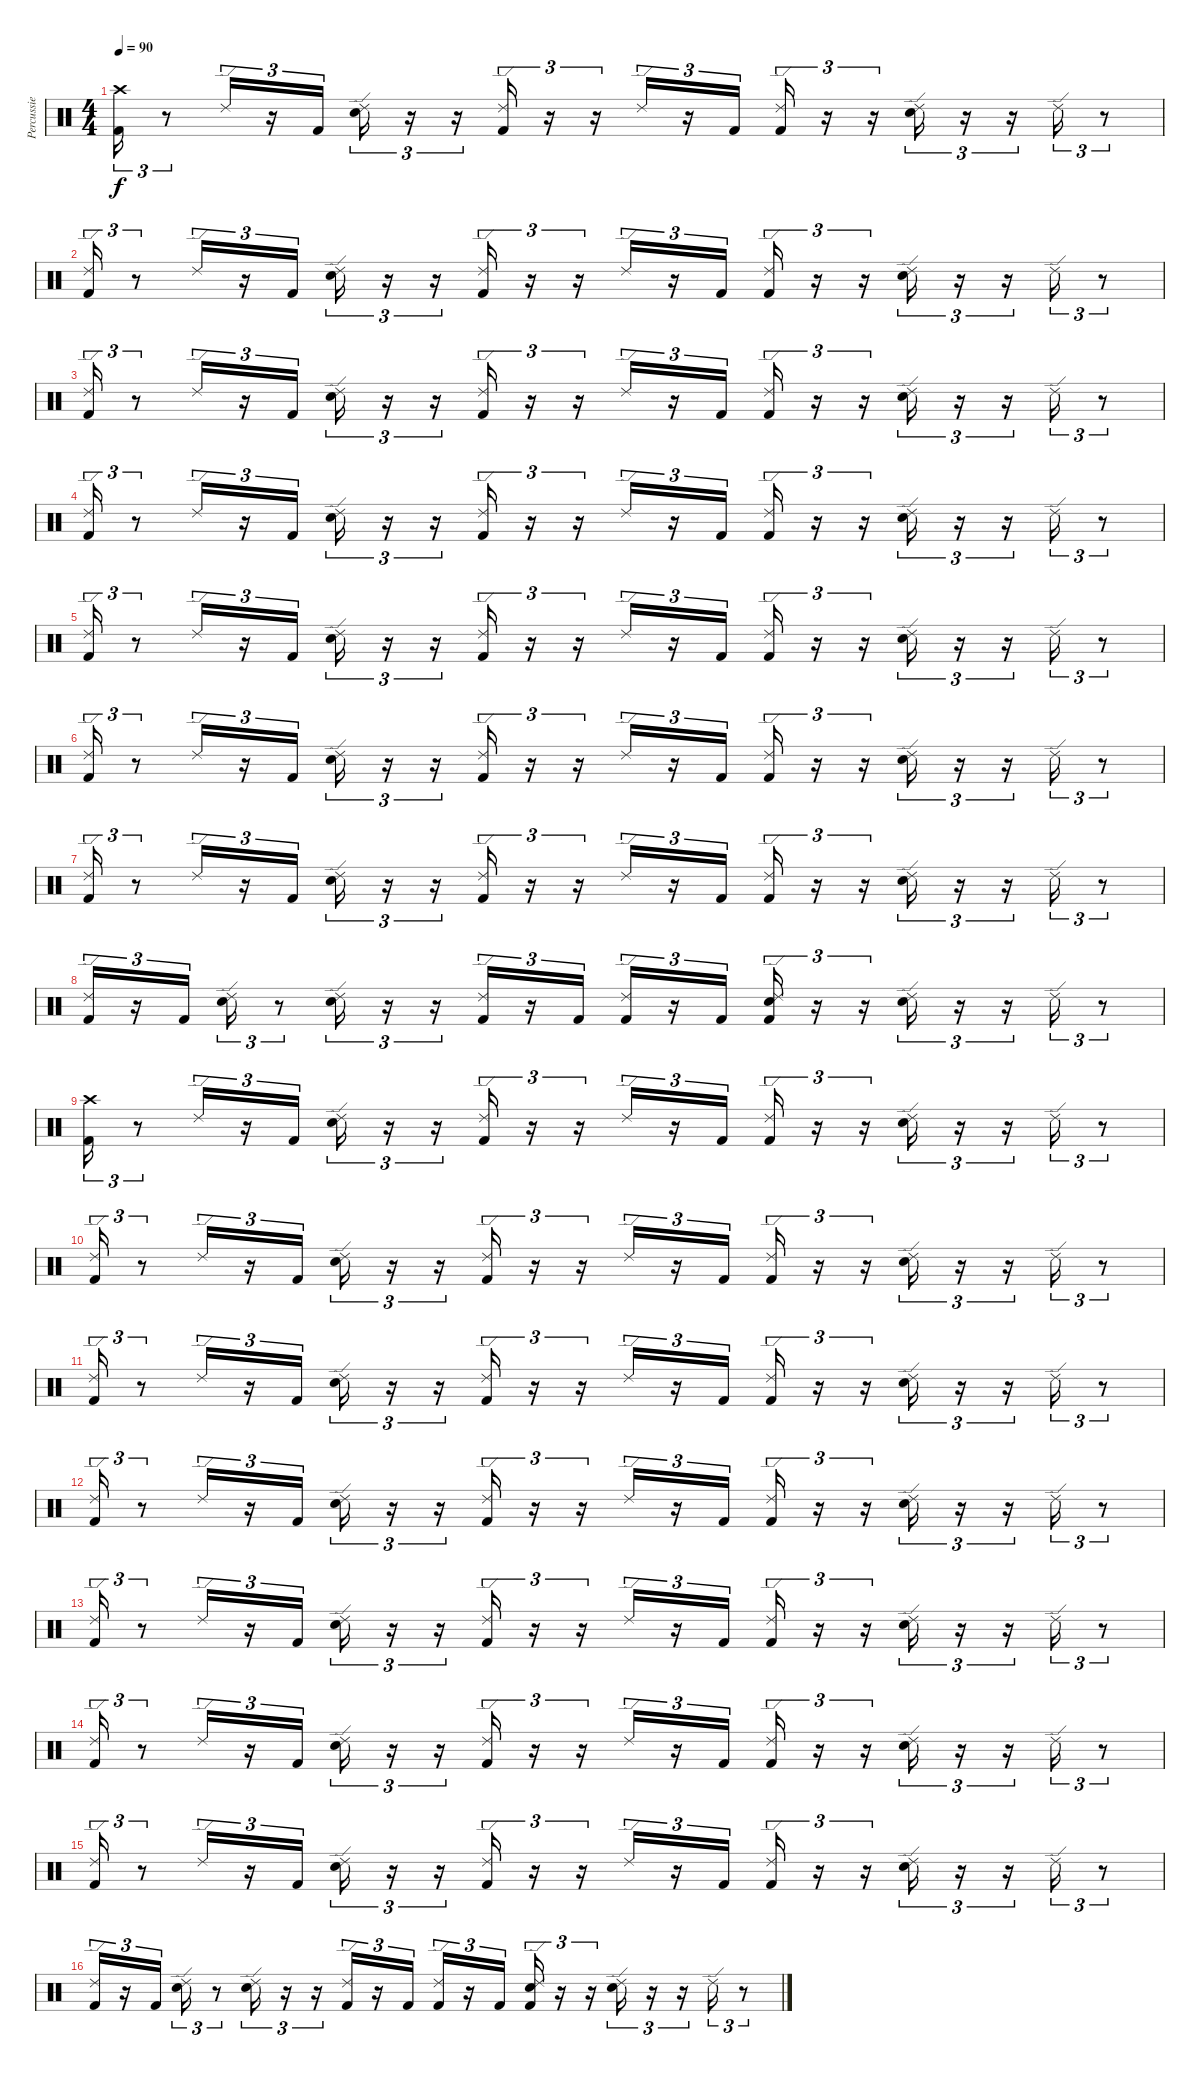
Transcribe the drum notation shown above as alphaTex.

\track ("Percussie" "Percussie") {instrument percussion}
\staff {score}
\articulation defaults
\ts (4 4)
\tempo 90
\clef neutral
\ks c
("Crash high (hit)" "Kick (hit) 2").16{tu (3 2) dy f} r.8{tu (3 2)} "Ride (edge) 2".16{tu (3 2)} r.16{tu (3 2)} "Kick (hit) 2".16{tu (3 2)} ("Ride (edge) 2" "Electric Snare (hit)").16{tu (3 2)} r.16{tu (3 2)} r.16{tu (3 2)} ("Ride (edge) 2" "Kick (hit) 2").16{tu (3 2)} r.16{tu (3 2)} r.16{tu (3 2)} "Ride (edge) 2".16{tu (3 2)} r.16{tu (3 2)} "Kick (hit) 2".16{tu (3 2)} ("Ride (edge) 2" "Kick (hit) 2").16{tu (3 2)} r.16{tu (3 2)} r.16{tu (3 2)} ("Ride (edge) 2" "Electric Snare (hit)").16{tu (3 2)} r.16{tu (3 2)} r.16{tu (3 2)} "Ride (edge) 2".16{tu (3 2)} r.8{tu (3 2)} |
("Ride (edge) 2" "Kick (hit) 2").16{tu (3 2)} r.8{tu (3 2)} "Ride (edge) 2".16{tu (3 2)} r.16{tu (3 2)} "Kick (hit) 2".16{tu (3 2)} ("Ride (edge) 2" "Electric Snare (hit)").16{tu (3 2)} r.16{tu (3 2)} r.16{tu (3 2)} ("Ride (edge) 2" "Kick (hit) 2").16{tu (3 2)} r.16{tu (3 2)} r.16{tu (3 2)} "Ride (edge) 2".16{tu (3 2)} r.16{tu (3 2)} "Kick (hit) 2".16{tu (3 2)} ("Ride (edge) 2" "Kick (hit) 2").16{tu (3 2)} r.16{tu (3 2)} r.16{tu (3 2)} ("Ride (edge) 2" "Electric Snare (hit)").16{tu (3 2)} r.16{tu (3 2)} r.16{tu (3 2)} "Ride (edge) 2".16{tu (3 2)} r.8{tu (3 2)} |
("Ride (edge) 2" "Kick (hit) 2").16{tu (3 2)} r.8{tu (3 2)} "Ride (edge) 2".16{tu (3 2)} r.16{tu (3 2)} "Kick (hit) 2".16{tu (3 2)} ("Ride (edge) 2" "Electric Snare (hit)").16{tu (3 2)} r.16{tu (3 2)} r.16{tu (3 2)} ("Ride (edge) 2" "Kick (hit) 2").16{tu (3 2)} r.16{tu (3 2)} r.16{tu (3 2)} "Ride (edge) 2".16{tu (3 2)} r.16{tu (3 2)} "Kick (hit) 2".16{tu (3 2)} ("Ride (edge) 2" "Kick (hit) 2").16{tu (3 2)} r.16{tu (3 2)} r.16{tu (3 2)} ("Ride (edge) 2" "Electric Snare (hit)").16{tu (3 2)} r.16{tu (3 2)} r.16{tu (3 2)} "Ride (edge) 2".16{tu (3 2)} r.8{tu (3 2)} |
("Ride (edge) 2" "Kick (hit) 2").16{tu (3 2)} r.8{tu (3 2)} "Ride (edge) 2".16{tu (3 2)} r.16{tu (3 2)} "Kick (hit) 2".16{tu (3 2)} ("Ride (edge) 2" "Electric Snare (hit)").16{tu (3 2)} r.16{tu (3 2)} r.16{tu (3 2)} ("Ride (edge) 2" "Kick (hit) 2").16{tu (3 2)} r.16{tu (3 2)} r.16{tu (3 2)} "Ride (edge) 2".16{tu (3 2)} r.16{tu (3 2)} "Kick (hit) 2".16{tu (3 2)} ("Ride (edge) 2" "Kick (hit) 2").16{tu (3 2)} r.16{tu (3 2)} r.16{tu (3 2)} ("Ride (edge) 2" "Electric Snare (hit)").16{tu (3 2)} r.16{tu (3 2)} r.16{tu (3 2)} "Ride (edge) 2".16{tu (3 2)} r.8{tu (3 2)} |
("Ride (edge) 2" "Kick (hit) 2").16{tu (3 2)} r.8{tu (3 2)} "Ride (edge) 2".16{tu (3 2)} r.16{tu (3 2)} "Kick (hit) 2".16{tu (3 2)} ("Ride (edge) 2" "Electric Snare (hit)").16{tu (3 2)} r.16{tu (3 2)} r.16{tu (3 2)} ("Ride (edge) 2" "Kick (hit) 2").16{tu (3 2)} r.16{tu (3 2)} r.16{tu (3 2)} "Ride (edge) 2".16{tu (3 2)} r.16{tu (3 2)} "Kick (hit) 2".16{tu (3 2)} ("Ride (edge) 2" "Kick (hit) 2").16{tu (3 2)} r.16{tu (3 2)} r.16{tu (3 2)} ("Ride (edge) 2" "Electric Snare (hit)").16{tu (3 2)} r.16{tu (3 2)} r.16{tu (3 2)} "Ride (edge) 2".16{tu (3 2)} r.8{tu (3 2)} |
("Ride (edge) 2" "Kick (hit) 2").16{tu (3 2)} r.8{tu (3 2)} "Ride (edge) 2".16{tu (3 2)} r.16{tu (3 2)} "Kick (hit) 2".16{tu (3 2)} ("Ride (edge) 2" "Electric Snare (hit)").16{tu (3 2)} r.16{tu (3 2)} r.16{tu (3 2)} ("Ride (edge) 2" "Kick (hit) 2").16{tu (3 2)} r.16{tu (3 2)} r.16{tu (3 2)} "Ride (edge) 2".16{tu (3 2)} r.16{tu (3 2)} "Kick (hit) 2".16{tu (3 2)} ("Ride (edge) 2" "Kick (hit) 2").16{tu (3 2)} r.16{tu (3 2)} r.16{tu (3 2)} ("Ride (edge) 2" "Electric Snare (hit)").16{tu (3 2)} r.16{tu (3 2)} r.16{tu (3 2)} "Ride (edge) 2".16{tu (3 2)} r.8{tu (3 2)} |
("Ride (edge) 2" "Kick (hit) 2").16{tu (3 2)} r.8{tu (3 2)} "Ride (edge) 2".16{tu (3 2)} r.16{tu (3 2)} "Kick (hit) 2".16{tu (3 2)} ("Ride (edge) 2" "Electric Snare (hit)").16{tu (3 2)} r.16{tu (3 2)} r.16{tu (3 2)} ("Ride (edge) 2" "Kick (hit) 2").16{tu (3 2)} r.16{tu (3 2)} r.16{tu (3 2)} "Ride (edge) 2".16{tu (3 2)} r.16{tu (3 2)} "Kick (hit) 2".16{tu (3 2)} ("Ride (edge) 2" "Kick (hit) 2").16{tu (3 2)} r.16{tu (3 2)} r.16{tu (3 2)} ("Ride (edge) 2" "Electric Snare (hit)").16{tu (3 2)} r.16{tu (3 2)} r.16{tu (3 2)} "Ride (edge) 2".16{tu (3 2)} r.8{tu (3 2)} |
("Ride (edge) 2" "Kick (hit) 2").16{tu (3 2)} r.16{tu (3 2)} "Kick (hit) 2".16{tu (3 2)} ("Ride (edge) 2" "Electric Snare (hit)").16{tu (3 2)} r.8{tu (3 2)} ("Ride (edge) 2" "Electric Snare (hit)").16{tu (3 2)} r.16{tu (3 2)} r.16{tu (3 2)} ("Ride (edge) 2" "Kick (hit) 2").16{tu (3 2)} r.16{tu (3 2)} "Kick (hit) 2".16{tu (3 2)} ("Ride (edge) 2" "Kick (hit) 2").16{tu (3 2)} r.16{tu (3 2)} "Kick (hit) 2".16{tu (3 2)} ("Ride (edge) 2" "Electric Snare (hit)" "Kick (hit) 2").16{tu (3 2)} r.16{tu (3 2)} r.16{tu (3 2)} ("Ride (edge) 2" "Electric Snare (hit)").16{tu (3 2)} r.16{tu (3 2)} r.16{tu (3 2)} "Ride (edge) 2".16{tu (3 2)} r.8{tu (3 2)} |
("Crash high (hit)" "Kick (hit) 2").16{tu (3 2)} r.8{tu (3 2)} "Ride (edge) 2".16{tu (3 2)} r.16{tu (3 2)} "Kick (hit) 2".16{tu (3 2)} ("Ride (edge) 2" "Electric Snare (hit)").16{tu (3 2)} r.16{tu (3 2)} r.16{tu (3 2)} ("Ride (edge) 2" "Kick (hit) 2").16{tu (3 2)} r.16{tu (3 2)} r.16{tu (3 2)} "Ride (edge) 2".16{tu (3 2)} r.16{tu (3 2)} "Kick (hit) 2".16{tu (3 2)} ("Ride (edge) 2" "Kick (hit) 2").16{tu (3 2)} r.16{tu (3 2)} r.16{tu (3 2)} ("Ride (edge) 2" "Electric Snare (hit)").16{tu (3 2)} r.16{tu (3 2)} r.16{tu (3 2)} "Ride (edge) 2".16{tu (3 2)} r.8{tu (3 2)} |
("Ride (edge) 2" "Kick (hit) 2").16{tu (3 2)} r.8{tu (3 2)} "Ride (edge) 2".16{tu (3 2)} r.16{tu (3 2)} "Kick (hit) 2".16{tu (3 2)} ("Ride (edge) 2" "Electric Snare (hit)").16{tu (3 2)} r.16{tu (3 2)} r.16{tu (3 2)} ("Ride (edge) 2" "Kick (hit) 2").16{tu (3 2)} r.16{tu (3 2)} r.16{tu (3 2)} "Ride (edge) 2".16{tu (3 2)} r.16{tu (3 2)} "Kick (hit) 2".16{tu (3 2)} ("Ride (edge) 2" "Kick (hit) 2").16{tu (3 2)} r.16{tu (3 2)} r.16{tu (3 2)} ("Ride (edge) 2" "Electric Snare (hit)").16{tu (3 2)} r.16{tu (3 2)} r.16{tu (3 2)} "Ride (edge) 2".16{tu (3 2)} r.8{tu (3 2)} |
("Ride (edge) 2" "Kick (hit) 2").16{tu (3 2)} r.8{tu (3 2)} "Ride (edge) 2".16{tu (3 2)} r.16{tu (3 2)} "Kick (hit) 2".16{tu (3 2)} ("Ride (edge) 2" "Electric Snare (hit)").16{tu (3 2)} r.16{tu (3 2)} r.16{tu (3 2)} ("Ride (edge) 2" "Kick (hit) 2").16{tu (3 2)} r.16{tu (3 2)} r.16{tu (3 2)} "Ride (edge) 2".16{tu (3 2)} r.16{tu (3 2)} "Kick (hit) 2".16{tu (3 2)} ("Ride (edge) 2" "Kick (hit) 2").16{tu (3 2)} r.16{tu (3 2)} r.16{tu (3 2)} ("Ride (edge) 2" "Electric Snare (hit)").16{tu (3 2)} r.16{tu (3 2)} r.16{tu (3 2)} "Ride (edge) 2".16{tu (3 2)} r.8{tu (3 2)} |
("Ride (edge) 2" "Kick (hit) 2").16{tu (3 2)} r.8{tu (3 2)} "Ride (edge) 2".16{tu (3 2)} r.16{tu (3 2)} "Kick (hit) 2".16{tu (3 2)} ("Ride (edge) 2" "Electric Snare (hit)").16{tu (3 2)} r.16{tu (3 2)} r.16{tu (3 2)} ("Ride (edge) 2" "Kick (hit) 2").16{tu (3 2)} r.16{tu (3 2)} r.16{tu (3 2)} "Ride (edge) 2".16{tu (3 2)} r.16{tu (3 2)} "Kick (hit) 2".16{tu (3 2)} ("Ride (edge) 2" "Kick (hit) 2").16{tu (3 2)} r.16{tu (3 2)} r.16{tu (3 2)} ("Ride (edge) 2" "Electric Snare (hit)").16{tu (3 2)} r.16{tu (3 2)} r.16{tu (3 2)} "Ride (edge) 2".16{tu (3 2)} r.8{tu (3 2)} |
("Ride (edge) 2" "Kick (hit) 2").16{tu (3 2)} r.8{tu (3 2)} "Ride (edge) 2".16{tu (3 2)} r.16{tu (3 2)} "Kick (hit) 2".16{tu (3 2)} ("Ride (edge) 2" "Electric Snare (hit)").16{tu (3 2)} r.16{tu (3 2)} r.16{tu (3 2)} ("Ride (edge) 2" "Kick (hit) 2").16{tu (3 2)} r.16{tu (3 2)} r.16{tu (3 2)} "Ride (edge) 2".16{tu (3 2)} r.16{tu (3 2)} "Kick (hit) 2".16{tu (3 2)} ("Ride (edge) 2" "Kick (hit) 2").16{tu (3 2)} r.16{tu (3 2)} r.16{tu (3 2)} ("Ride (edge) 2" "Electric Snare (hit)").16{tu (3 2)} r.16{tu (3 2)} r.16{tu (3 2)} "Ride (edge) 2".16{tu (3 2)} r.8{tu (3 2)} |
("Ride (edge) 2" "Kick (hit) 2").16{tu (3 2)} r.8{tu (3 2)} "Ride (edge) 2".16{tu (3 2)} r.16{tu (3 2)} "Kick (hit) 2".16{tu (3 2)} ("Ride (edge) 2" "Electric Snare (hit)").16{tu (3 2)} r.16{tu (3 2)} r.16{tu (3 2)} ("Ride (edge) 2" "Kick (hit) 2").16{tu (3 2)} r.16{tu (3 2)} r.16{tu (3 2)} "Ride (edge) 2".16{tu (3 2)} r.16{tu (3 2)} "Kick (hit) 2".16{tu (3 2)} ("Ride (edge) 2" "Kick (hit) 2").16{tu (3 2)} r.16{tu (3 2)} r.16{tu (3 2)} ("Ride (edge) 2" "Electric Snare (hit)").16{tu (3 2)} r.16{tu (3 2)} r.16{tu (3 2)} "Ride (edge) 2".16{tu (3 2)} r.8{tu (3 2)} |
("Ride (edge) 2" "Kick (hit) 2").16{tu (3 2)} r.8{tu (3 2)} "Ride (edge) 2".16{tu (3 2)} r.16{tu (3 2)} "Kick (hit) 2".16{tu (3 2)} ("Ride (edge) 2" "Electric Snare (hit)").16{tu (3 2)} r.16{tu (3 2)} r.16{tu (3 2)} ("Ride (edge) 2" "Kick (hit) 2").16{tu (3 2)} r.16{tu (3 2)} r.16{tu (3 2)} "Ride (edge) 2".16{tu (3 2)} r.16{tu (3 2)} "Kick (hit) 2".16{tu (3 2)} ("Ride (edge) 2" "Kick (hit) 2").16{tu (3 2)} r.16{tu (3 2)} r.16{tu (3 2)} ("Ride (edge) 2" "Electric Snare (hit)").16{tu (3 2)} r.16{tu (3 2)} r.16{tu (3 2)} "Ride (edge) 2".16{tu (3 2)} r.8{tu (3 2)} |
("Ride (edge) 2" "Kick (hit) 2").16{tu (3 2)} r.16{tu (3 2)} "Kick (hit) 2".16{tu (3 2)} ("Ride (edge) 2" "Electric Snare (hit)").16{tu (3 2)} r.8{tu (3 2)} ("Ride (edge) 2" "Electric Snare (hit)").16{tu (3 2)} r.16{tu (3 2)} r.16{tu (3 2)} ("Ride (edge) 2" "Kick (hit) 2").16{tu (3 2)} r.16{tu (3 2)} "Kick (hit) 2".16{tu (3 2)} ("Ride (edge) 2" "Kick (hit) 2").16{tu (3 2)} r.16{tu (3 2)} "Kick (hit) 2".16{tu (3 2)} ("Ride (edge) 2" "Electric Snare (hit)" "Kick (hit) 2").16{tu (3 2)} r.16{tu (3 2)} r.16{tu (3 2)} ("Ride (edge) 2" "Electric Snare (hit)").16{tu (3 2)} r.16{tu (3 2)} r.16{tu (3 2)} "Ride (edge) 2".16{tu (3 2)} r.8{tu (3 2)}
